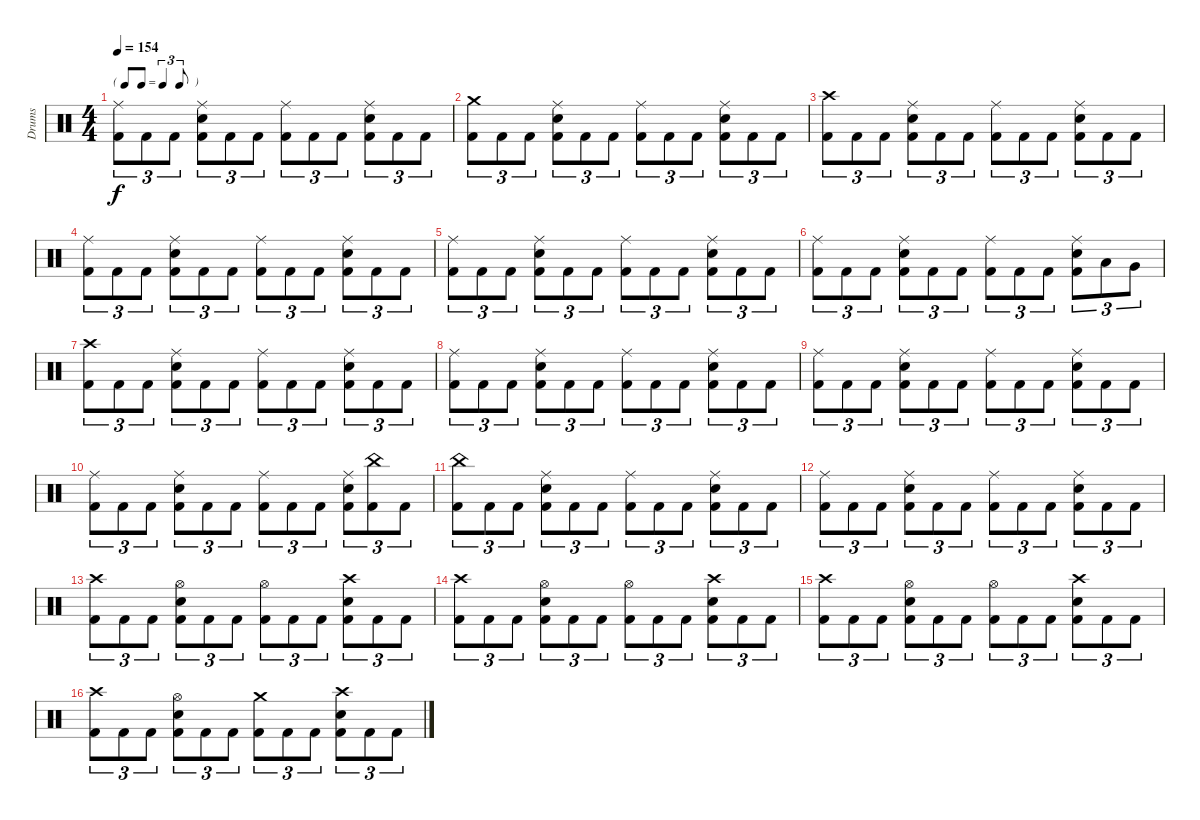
\track ("Drums" "Drums") {instrument percussion}
\staff {score}
\articulation defaults
\ts (4 4)
\tf triplet8th
\tempo 154
\clef neutral
\ks c
("Ride (middle)" "Kick (hit) 2").8{tu (3 2) dy f} "Kick (hit) 2".8{tu (3 2)} "Kick (hit) 2".8{tu (3 2)} ("Ride (middle)" "Snare (hit) 2" "Kick (hit) 2").8{tu (3 2)} "Kick (hit) 2".8{tu (3 2)} "Kick (hit) 2".8{tu (3 2)} ("Ride (middle)" "Kick (hit) 2").8{tu (3 2)} "Kick (hit) 2".8{tu (3 2)} "Kick (hit) 2".8{tu (3 2)} ("Ride (middle)" "Snare (hit) 2" "Kick (hit) 2").8{tu (3 2)} "Kick (hit) 2".8{tu (3 2)} "Kick (hit) 2".8{tu (3 2)} |
("Crash medium (hit)" "Kick (hit) 2").8{tu (3 2)} "Kick (hit) 2".8{tu (3 2)} "Kick (hit) 2".8{tu (3 2)} ("Ride (middle)" "Snare (hit) 2" "Kick (hit) 2").8{tu (3 2)} "Kick (hit) 2".8{tu (3 2)} "Kick (hit) 2".8{tu (3 2)} ("Ride (middle)" "Kick (hit) 2").8{tu (3 2)} "Kick (hit) 2".8{tu (3 2)} "Kick (hit) 2".8{tu (3 2)} ("Ride (middle)" "Snare (hit) 2" "Kick (hit) 2").8{tu (3 2)} "Kick (hit) 2".8{tu (3 2)} "Kick (hit) 2".8{tu (3 2)} |
("Crash high (hit)" "Kick (hit) 2").8{tu (3 2)} "Kick (hit) 2".8{tu (3 2)} "Kick (hit) 2".8{tu (3 2)} ("Ride (middle)" "Snare (hit) 2" "Kick (hit) 2").8{tu (3 2)} "Kick (hit) 2".8{tu (3 2)} "Kick (hit) 2".8{tu (3 2)} ("Ride (middle)" "Kick (hit) 2").8{tu (3 2)} "Kick (hit) 2".8{tu (3 2)} "Kick (hit) 2".8{tu (3 2)} ("Ride (middle)" "Snare (hit) 2" "Kick (hit) 2").8{tu (3 2)} "Kick (hit) 2".8{tu (3 2)} "Kick (hit) 2".8{tu (3 2)} |
("Ride (middle)" "Kick (hit) 2").8{tu (3 2)} "Kick (hit) 2".8{tu (3 2)} "Kick (hit) 2".8{tu (3 2)} ("Ride (middle)" "Snare (hit) 2" "Kick (hit) 2").8{tu (3 2)} "Kick (hit) 2".8{tu (3 2)} "Kick (hit) 2".8{tu (3 2)} ("Ride (middle)" "Kick (hit) 2").8{tu (3 2)} "Kick (hit) 2".8{tu (3 2)} "Kick (hit) 2".8{tu (3 2)} ("Ride (middle)" "Snare (hit) 2" "Kick (hit) 2").8{tu (3 2)} "Kick (hit) 2".8{tu (3 2)} "Kick (hit) 2".8{tu (3 2)} |
("Ride (middle)" "Kick (hit) 2").8{tu (3 2)} "Kick (hit) 2".8{tu (3 2)} "Kick (hit) 2".8{tu (3 2)} ("Ride (middle)" "Snare (hit) 2" "Kick (hit) 2").8{tu (3 2)} "Kick (hit) 2".8{tu (3 2)} "Kick (hit) 2".8{tu (3 2)} ("Ride (middle)" "Kick (hit) 2").8{tu (3 2)} "Kick (hit) 2".8{tu (3 2)} "Kick (hit) 2".8{tu (3 2)} ("Ride (middle)" "Snare (hit) 2" "Kick (hit) 2").8{tu (3 2)} "Kick (hit) 2".8{tu (3 2)} "Kick (hit) 2".8{tu (3 2)} |
("Ride (middle)" "Kick (hit) 2").8{tu (3 2)} "Kick (hit) 2".8{tu (3 2)} "Kick (hit) 2".8{tu (3 2)} ("Ride (middle)" "Snare (hit) 2" "Kick (hit) 2").8{tu (3 2)} "Kick (hit) 2".8{tu (3 2)} "Kick (hit) 2".8{tu (3 2)} ("Ride (middle)" "Kick (hit) 2").8{tu (3 2)} "Kick (hit) 2".8{tu (3 2)} "Kick (hit) 2".8{tu (3 2)} ("Ride (middle)" "Snare (hit) 2" "Kick (hit) 2").8{tu (3 2)} "Low Tom (hit)".8{tu (3 2)} "Very Low Tom (hit)".8{tu (3 2)} |
("Crash high (hit)" "Kick (hit) 2").8{tu (3 2)} "Kick (hit) 2".8{tu (3 2)} "Kick (hit) 2".8{tu (3 2)} ("Ride (middle)" "Snare (hit) 2" "Kick (hit) 2").8{tu (3 2)} "Kick (hit) 2".8{tu (3 2)} "Kick (hit) 2".8{tu (3 2)} ("Ride (middle)" "Kick (hit) 2").8{tu (3 2)} "Kick (hit) 2".8{tu (3 2)} "Kick (hit) 2".8{tu (3 2)} ("Ride (middle)" "Snare (hit) 2" "Kick (hit) 2").8{tu (3 2)} "Kick (hit) 2".8{tu (3 2)} "Kick (hit) 2".8{tu (3 2)} |
("Ride (middle)" "Kick (hit) 2").8{tu (3 2)} "Kick (hit) 2".8{tu (3 2)} "Kick (hit) 2".8{tu (3 2)} ("Ride (middle)" "Snare (hit) 2" "Kick (hit) 2").8{tu (3 2)} "Kick (hit) 2".8{tu (3 2)} "Kick (hit) 2".8{tu (3 2)} ("Ride (middle)" "Kick (hit) 2").8{tu (3 2)} "Kick (hit) 2".8{tu (3 2)} "Kick (hit) 2".8{tu (3 2)} ("Ride (middle)" "Snare (hit) 2" "Kick (hit) 2").8{tu (3 2)} "Kick (hit) 2".8{tu (3 2)} "Kick (hit) 2".8{tu (3 2)} |
("Ride (middle)" "Kick (hit) 2").8{tu (3 2)} "Kick (hit) 2".8{tu (3 2)} "Kick (hit) 2".8{tu (3 2)} ("Ride (middle)" "Snare (hit) 2" "Kick (hit) 2").8{tu (3 2)} "Kick (hit) 2".8{tu (3 2)} "Kick (hit) 2".8{tu (3 2)} ("Ride (middle)" "Kick (hit) 2").8{tu (3 2)} "Kick (hit) 2".8{tu (3 2)} "Kick (hit) 2".8{tu (3 2)} ("Ride (middle)" "Snare (hit) 2" "Kick (hit) 2").8{tu (3 2)} "Kick (hit) 2".8{tu (3 2)} "Kick (hit) 2".8{tu (3 2)} |
("Ride (middle)" "Kick (hit) 2").8{tu (3 2)} "Kick (hit) 2".8{tu (3 2)} "Kick (hit) 2".8{tu (3 2)} ("Ride (middle)" "Snare (hit) 2" "Kick (hit) 2").8{tu (3 2)} "Kick (hit) 2".8{tu (3 2)} "Kick (hit) 2".8{tu (3 2)} ("Ride (middle)" "Kick (hit) 2").8{tu (3 2)} "Kick (hit) 2".8{tu (3 2)} "Kick (hit) 2".8{tu (3 2)} ("Ride (middle)" "Snare (hit) 2" "Kick (hit) 2").8{tu (3 2)} ("China (hit)" "Kick (hit) 2").8{tu (3 2)} "Kick (hit) 2".8{tu (3 2)} |
("China (hit)" "Kick (hit) 2").8{tu (3 2)} "Kick (hit) 2".8{tu (3 2)} "Kick (hit) 2".8{tu (3 2)} ("Ride (middle)" "Snare (hit) 2" "Kick (hit) 2").8{tu (3 2)} "Kick (hit) 2".8{tu (3 2)} "Kick (hit) 2".8{tu (3 2)} ("Ride (middle)" "Kick (hit) 2").8{tu (3 2)} "Kick (hit) 2".8{tu (3 2)} "Kick (hit) 2".8{tu (3 2)} ("Ride (middle)" "Snare (hit) 2" "Kick (hit) 2").8{tu (3 2)} "Kick (hit) 2".8{tu (3 2)} "Kick (hit) 2".8{tu (3 2)} |
("Ride (middle)" "Kick (hit) 2").8{tu (3 2)} "Kick (hit) 2".8{tu (3 2)} "Kick (hit) 2".8{tu (3 2)} ("Ride (middle)" "Snare (hit) 2" "Kick (hit) 2").8{tu (3 2)} "Kick (hit) 2".8{tu (3 2)} "Kick (hit) 2".8{tu (3 2)} ("Ride (middle)" "Kick (hit) 2").8{tu (3 2)} "Kick (hit) 2".8{tu (3 2)} "Kick (hit) 2".8{tu (3 2)} ("Ride (middle)" "Snare (hit) 2" "Kick (hit) 2").8{tu (3 2)} "Kick (hit) 2".8{tu (3 2)} "Kick (hit) 2".8{tu (3 2)} |
("Crash high (hit)" "Kick (hit) 2").8{tu (3 2)} "Kick (hit) 2".8{tu (3 2)} "Kick (hit) 2".8{tu (3 2)} ("Hi-Hat (open)" "Snare (hit) 2" "Kick (hit) 2").8{tu (3 2)} "Kick (hit) 2".8{tu (3 2)} "Kick (hit) 2".8{tu (3 2)} ("Hi-Hat (open)" "Kick (hit) 2").8{tu (3 2)} "Kick (hit) 2".8{tu (3 2)} "Kick (hit) 2".8{tu (3 2)} ("Crash high (hit)" "Snare (hit) 2" "Kick (hit) 2").8{tu (3 2)} "Kick (hit) 2".8{tu (3 2)} "Kick (hit) 2".8{tu (3 2)} |
("Crash high (hit)" "Kick (hit) 2").8{tu (3 2)} "Kick (hit) 2".8{tu (3 2)} "Kick (hit) 2".8{tu (3 2)} ("Hi-Hat (open)" "Snare (hit) 2" "Kick (hit) 2").8{tu (3 2)} "Kick (hit) 2".8{tu (3 2)} "Kick (hit) 2".8{tu (3 2)} ("Hi-Hat (open)" "Kick (hit) 2").8{tu (3 2)} "Kick (hit) 2".8{tu (3 2)} "Kick (hit) 2".8{tu (3 2)} ("Crash high (hit)" "Snare (hit) 2" "Kick (hit) 2").8{tu (3 2)} "Kick (hit) 2".8{tu (3 2)} "Kick (hit) 2".8{tu (3 2)} |
("Crash high (hit)" "Kick (hit) 2").8{tu (3 2)} "Kick (hit) 2".8{tu (3 2)} "Kick (hit) 2".8{tu (3 2)} ("Hi-Hat (open)" "Snare (hit) 2" "Kick (hit) 2").8{tu (3 2)} "Kick (hit) 2".8{tu (3 2)} "Kick (hit) 2".8{tu (3 2)} ("Hi-Hat (open)" "Kick (hit) 2").8{tu (3 2)} "Kick (hit) 2".8{tu (3 2)} "Kick (hit) 2".8{tu (3 2)} ("Crash high (hit)" "Snare (hit) 2" "Kick (hit) 2").8{tu (3 2)} "Kick (hit) 2".8{tu (3 2)} "Kick (hit) 2".8{tu (3 2)} |
("Crash high (hit)" "Kick (hit) 2").8{tu (3 2)} "Kick (hit) 2".8{tu (3 2)} "Kick (hit) 2".8{tu (3 2)} ("Hi-Hat (open)" "Snare (hit) 2" "Kick (hit) 2").8{tu (3 2)} "Kick (hit) 2".8{tu (3 2)} "Kick (hit) 2".8{tu (3 2)} ("Crash medium (hit)" "Kick (hit) 2").8{tu (3 2)} "Kick (hit) 2".8{tu (3 2)} "Kick (hit) 2".8{tu (3 2)} ("Crash high (hit)" "Snare (hit) 2" "Kick (hit) 2").8{tu (3 2)} "Kick (hit) 2".8{tu (3 2)} "Kick (hit) 2".8{tu (3 2)}
